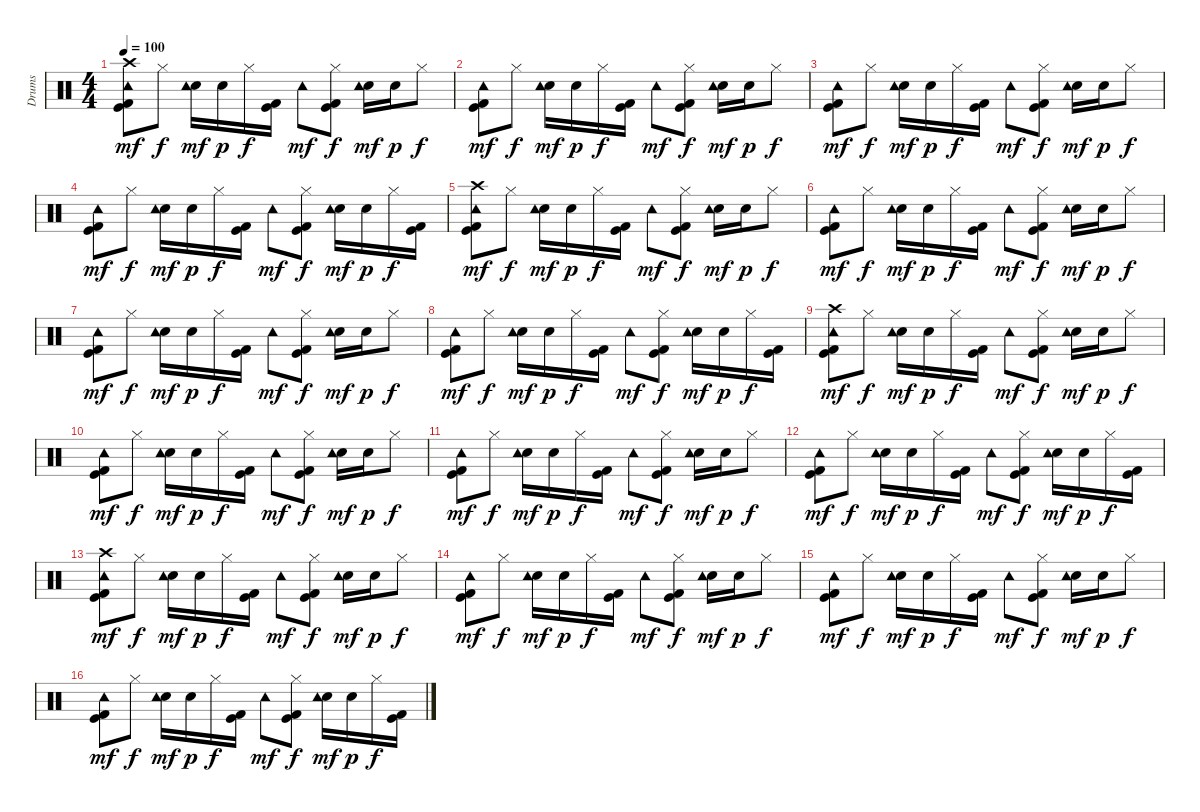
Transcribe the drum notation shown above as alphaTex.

\track ("Drums" "Drums") {instrument percussion}
\staff {score}
\articulation defaults
\ts (4 4)
\tempo 100
\clef neutral
\ks c
("Kick (hit)" "Kick (hit) 2" "Tambourine (hit)" "Crash high (hit)").8{dy mf} "Hi-Hat (closed)".8{dy f} ("Hand Clap (hit)" "Tambourine (hit)").16{dy mf} "Hand Clap (hit)".16{dy p} "Hi-Hat (closed)".16{dy f} ("Kick (hit)" "Kick (hit) 2").16 "Tambourine (hit)".8{dy mf} ("Kick (hit)" "Kick (hit) 2" "Hi-Hat (closed)").8{dy f} ("Hand Clap (hit)" "Tambourine (hit)").16{dy mf} "Hand Clap (hit)".16{dy p} "Hi-Hat (closed)".8{dy f} |
("Kick (hit)" "Kick (hit) 2" "Tambourine (hit)").8{dy mf} "Hi-Hat (closed)".8{dy f} ("Hand Clap (hit)" "Tambourine (hit)").16{dy mf} "Hand Clap (hit)".16{dy p} "Hi-Hat (closed)".16{dy f} ("Kick (hit)" "Kick (hit) 2").16 "Tambourine (hit)".8{dy mf} ("Kick (hit)" "Kick (hit) 2" "Hi-Hat (closed)").8{dy f} ("Hand Clap (hit)" "Tambourine (hit)").16{dy mf} "Hand Clap (hit)".16{dy p} "Hi-Hat (closed)".8{dy f} |
("Kick (hit)" "Kick (hit) 2" "Tambourine (hit)").8{dy mf} "Hi-Hat (closed)".8{dy f} ("Hand Clap (hit)" "Tambourine (hit)").16{dy mf} "Hand Clap (hit)".16{dy p} "Hi-Hat (closed)".16{dy f} ("Kick (hit)" "Kick (hit) 2").16 "Tambourine (hit)".8{dy mf} ("Kick (hit)" "Kick (hit) 2" "Hi-Hat (closed)").8{dy f} ("Hand Clap (hit)" "Tambourine (hit)").16{dy mf} "Hand Clap (hit)".16{dy p} "Hi-Hat (closed)".8{dy f} |
("Kick (hit)" "Kick (hit) 2" "Tambourine (hit)").8{dy mf} "Hi-Hat (closed)".8{dy f} ("Hand Clap (hit)" "Tambourine (hit)").16{dy mf} "Hand Clap (hit)".16{dy p} "Hi-Hat (closed)".16{dy f} ("Kick (hit)" "Kick (hit) 2").16 "Tambourine (hit)".8{dy mf} ("Kick (hit)" "Kick (hit) 2" "Hi-Hat (closed)").8{dy f} ("Hand Clap (hit)" "Tambourine (hit)").16{dy mf} "Hand Clap (hit)".16{dy p} "Hi-Hat (closed)".16{dy f} ("Kick (hit)" "Kick (hit) 2").16 |
("Kick (hit)" "Kick (hit) 2" "Tambourine (hit)" "Crash high (hit)").8{dy mf} "Hi-Hat (closed)".8{dy f} ("Hand Clap (hit)" "Tambourine (hit)").16{dy mf} "Hand Clap (hit)".16{dy p} "Hi-Hat (closed)".16{dy f} ("Kick (hit)" "Kick (hit) 2").16 "Tambourine (hit)".8{dy mf} ("Kick (hit)" "Kick (hit) 2" "Hi-Hat (closed)").8{dy f} ("Hand Clap (hit)" "Tambourine (hit)").16{dy mf} "Hand Clap (hit)".16{dy p} "Hi-Hat (closed)".8{dy f} |
("Kick (hit)" "Kick (hit) 2" "Tambourine (hit)").8{dy mf} "Hi-Hat (closed)".8{dy f} ("Hand Clap (hit)" "Tambourine (hit)").16{dy mf} "Hand Clap (hit)".16{dy p} "Hi-Hat (closed)".16{dy f} ("Kick (hit)" "Kick (hit) 2").16 "Tambourine (hit)".8{dy mf} ("Kick (hit)" "Kick (hit) 2" "Hi-Hat (closed)").8{dy f} ("Hand Clap (hit)" "Tambourine (hit)").16{dy mf} "Hand Clap (hit)".16{dy p} "Hi-Hat (closed)".8{dy f} |
("Kick (hit)" "Kick (hit) 2" "Tambourine (hit)").8{dy mf} "Hi-Hat (closed)".8{dy f} ("Hand Clap (hit)" "Tambourine (hit)").16{dy mf} "Hand Clap (hit)".16{dy p} "Hi-Hat (closed)".16{dy f} ("Kick (hit)" "Kick (hit) 2").16 "Tambourine (hit)".8{dy mf} ("Kick (hit)" "Kick (hit) 2" "Hi-Hat (closed)").8{dy f} ("Hand Clap (hit)" "Tambourine (hit)").16{dy mf} "Hand Clap (hit)".16{dy p} "Hi-Hat (closed)".8{dy f} |
("Kick (hit)" "Kick (hit) 2" "Tambourine (hit)").8{dy mf} "Hi-Hat (closed)".8{dy f} ("Hand Clap (hit)" "Tambourine (hit)").16{dy mf} "Hand Clap (hit)".16{dy p} "Hi-Hat (closed)".16{dy f} ("Kick (hit)" "Kick (hit) 2").16 "Tambourine (hit)".8{dy mf} ("Kick (hit)" "Kick (hit) 2" "Hi-Hat (closed)").8{dy f} ("Hand Clap (hit)" "Tambourine (hit)").16{dy mf} "Hand Clap (hit)".16{dy p} "Hi-Hat (closed)".16{dy f} ("Kick (hit)" "Kick (hit) 2").16 |
("Kick (hit)" "Kick (hit) 2" "Crash high (hit)" "Tambourine (hit)").8{dy mf volume 15} "Hi-Hat (closed)".8{dy f} ("Hand Clap (hit)" "Tambourine (hit)").16{dy mf volume 14} "Hand Clap (hit)".16{dy p} "Hi-Hat (closed)".16{dy f} ("Kick (hit)" "Kick (hit) 2").16 "Tambourine (hit)".8{dy mf} ("Kick (hit)" "Kick (hit) 2" "Hi-Hat (closed)").8{dy f} ("Hand Clap (hit)" "Tambourine (hit)").16{dy mf} "Hand Clap (hit)".16{dy p} "Hi-Hat (closed)".8{dy f} |
("Kick (hit)" "Kick (hit) 2" "Tambourine (hit)").8{dy mf} "Hi-Hat (closed)".8{dy f} ("Hand Clap (hit)" "Tambourine (hit)").16{dy mf} "Hand Clap (hit)".16{dy p} "Hi-Hat (closed)".16{dy f} ("Kick (hit)" "Kick (hit) 2").16 "Tambourine (hit)".8{dy mf volume 13} ("Kick (hit)" "Kick (hit) 2" "Hi-Hat (closed)").8{dy f} ("Hand Clap (hit)" "Tambourine (hit)").16{dy mf volume 12} "Hand Clap (hit)".16{dy p} "Hi-Hat (closed)".8{dy f} |
("Kick (hit)" "Kick (hit) 2" "Tambourine (hit)").8{dy mf} "Hi-Hat (closed)".8{dy f} ("Hand Clap (hit)" "Tambourine (hit)").16{dy mf} "Hand Clap (hit)".16{dy p} "Hi-Hat (closed)".16{dy f} ("Kick (hit)" "Kick (hit) 2").16 "Tambourine (hit)".8{dy mf volume 11} ("Kick (hit)" "Kick (hit) 2" "Hi-Hat (closed)").8{dy f} ("Hand Clap (hit)" "Tambourine (hit)").16{dy mf volume 10} "Hand Clap (hit)".16{dy p} "Hi-Hat (closed)".8{dy f} |
("Kick (hit)" "Kick (hit) 2" "Tambourine (hit)").8{dy mf} "Hi-Hat (closed)".8{dy f} ("Hand Clap (hit)" "Tambourine (hit)").16{dy mf} "Hand Clap (hit)".16{dy p} "Hi-Hat (closed)".16{dy f} ("Kick (hit)" "Kick (hit) 2").16 "Tambourine (hit)".8{dy mf volume 9} ("Kick (hit)" "Kick (hit) 2" "Hi-Hat (closed)").8{dy f} ("Hand Clap (hit)" "Tambourine (hit)").16{dy mf volume 8} "Hand Clap (hit)".16{dy p} "Hi-Hat (closed)".16{dy f} ("Kick (hit)" "Kick (hit) 2").16 |
("Kick (hit)" "Kick (hit) 2" "Crash high (hit)" "Tambourine (hit)").8{dy mf} "Hi-Hat (closed)".8{dy f} ("Hand Clap (hit)" "Tambourine (hit)").16{dy mf} "Hand Clap (hit)".16{dy p} "Hi-Hat (closed)".16{dy f} ("Kick (hit)" "Kick (hit) 2").16 "Tambourine (hit)".8{dy mf volume 7} ("Kick (hit)" "Kick (hit) 2" "Hi-Hat (closed)").8{dy f} ("Hand Clap (hit)" "Tambourine (hit)").16{dy mf volume 6} "Hand Clap (hit)".16{dy p} "Hi-Hat (closed)".8{dy f} |
("Kick (hit)" "Kick (hit) 2" "Tambourine (hit)").8{dy mf} "Hi-Hat (closed)".8{dy f} ("Hand Clap (hit)" "Tambourine (hit)").16{dy mf} "Hand Clap (hit)".16{dy p} "Hi-Hat (closed)".16{dy f} ("Kick (hit)" "Kick (hit) 2").16 "Tambourine (hit)".8{dy mf volume 5} ("Kick (hit)" "Kick (hit) 2" "Hi-Hat (closed)").8{dy f} ("Hand Clap (hit)" "Tambourine (hit)").16{dy mf volume 4} "Hand Clap (hit)".16{dy p} "Hi-Hat (closed)".8{dy f} |
("Kick (hit)" "Kick (hit) 2" "Tambourine (hit)").8{dy mf} "Hi-Hat (closed)".8{dy f} ("Hand Clap (hit)" "Tambourine (hit)").16{dy mf} "Hand Clap (hit)".16{dy p} "Hi-Hat (closed)".16{dy f} ("Kick (hit)" "Kick (hit) 2").16 "Tambourine (hit)".8{dy mf volume 3} ("Kick (hit)" "Kick (hit) 2" "Hi-Hat (closed)").8{dy f} ("Hand Clap (hit)" "Tambourine (hit)").16{dy mf volume 2} "Hand Clap (hit)".16{dy p} "Hi-Hat (closed)".8{dy f} |
("Kick (hit)" "Kick (hit) 2" "Tambourine (hit)").8{dy mf} "Hi-Hat (closed)".8{dy f} ("Hand Clap (hit)" "Tambourine (hit)").16{dy mf} "Hand Clap (hit)".16{dy p} "Hi-Hat (closed)".16{dy f} ("Kick (hit)" "Kick (hit) 2").16 "Tambourine (hit)".8{dy mf volume 1} ("Kick (hit)" "Kick (hit) 2" "Hi-Hat (closed)").8{dy f} ("Hand Clap (hit)" "Tambourine (hit)").16{dy mf volume 0} "Hand Clap (hit)".16{dy p} "Hi-Hat (closed)".16{dy f} ("Kick (hit)" "Kick (hit) 2").16
